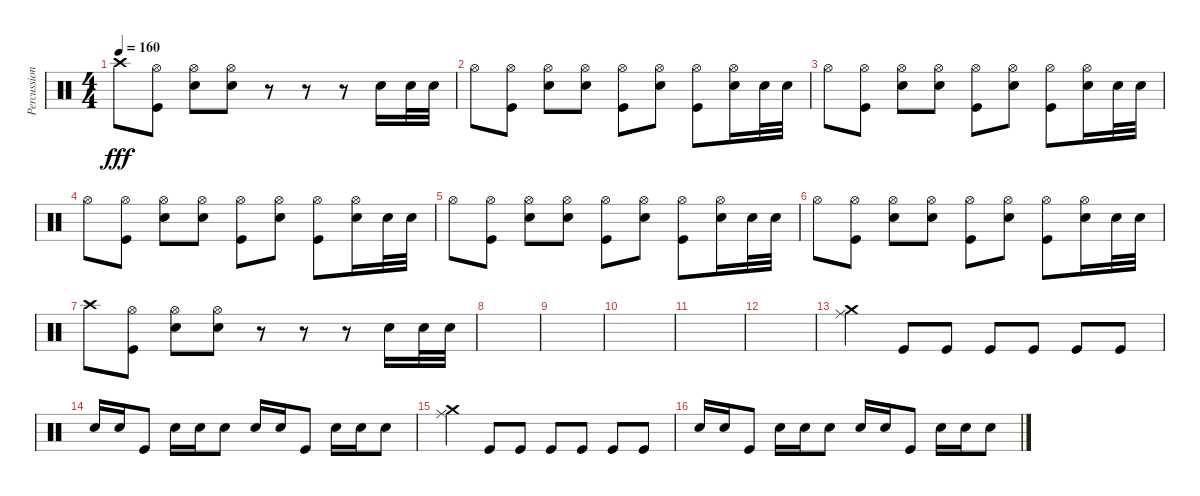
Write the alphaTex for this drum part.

\track ("Percussion" "Percussion") {instrument percussion}
\staff {score}
\articulation defaults
\ts (4 4)
\tempo 160
\clef neutral
\ks c "Crash high (hit)".8{dy fff}
("Kick (hit)" "Hi-Hat (open)").8 ("Snare (hit) 2" "Hi-Hat (open)").8 ("Snare (hit) 2" "Hi-Hat (open)").8 r.8 r.8 r.8 "Snare (hit) 2".16 "Snare (hit) 2".32 "Snare (hit) 2".32 |
"Hi-Hat (open)".8 ("Kick (hit)" "Hi-Hat (open)").8 ("Snare (hit) 2" "Hi-Hat (open)").8 ("Snare (hit) 2" "Hi-Hat (open)").8 ("Kick (hit)" "Hi-Hat (open)").8 ("Snare (hit) 2" "Hi-Hat (open)").8 ("Kick (hit)" "Hi-Hat (open)").8 ("Snare (hit) 2" "Hi-Hat (open)").16 "Snare (hit) 2".32 "Snare (hit) 2".32 |
"Hi-Hat (open)".8 ("Kick (hit)" "Hi-Hat (open)").8 ("Snare (hit) 2" "Hi-Hat (open)").8 ("Snare (hit) 2" "Hi-Hat (open)").8 ("Kick (hit)" "Hi-Hat (open)").8 ("Snare (hit) 2" "Hi-Hat (open)").8 ("Kick (hit)" "Hi-Hat (open)").8 ("Snare (hit) 2" "Hi-Hat (open)").16 "Snare (hit) 2".32 "Snare (hit) 2".32 |
"Hi-Hat (open)".8 ("Kick (hit)" "Hi-Hat (open)").8 ("Snare (hit) 2" "Hi-Hat (open)").8 ("Snare (hit) 2" "Hi-Hat (open)").8 ("Kick (hit)" "Hi-Hat (open)").8 ("Snare (hit) 2" "Hi-Hat (open)").8 ("Kick (hit)" "Hi-Hat (open)").8 ("Snare (hit) 2" "Hi-Hat (open)").16 "Snare (hit) 2".32 "Snare (hit) 2".32 |
"Hi-Hat (open)".8 ("Kick (hit)" "Hi-Hat (open)").8 ("Snare (hit) 2" "Hi-Hat (open)").8 ("Snare (hit) 2" "Hi-Hat (open)").8 ("Kick (hit)" "Hi-Hat (open)").8 ("Snare (hit) 2" "Hi-Hat (open)").8 ("Kick (hit)" "Hi-Hat (open)").8 ("Snare (hit) 2" "Hi-Hat (open)").16 "Snare (hit) 2".32 "Snare (hit) 2".32 |
"Hi-Hat (open)".8 ("Kick (hit)" "Hi-Hat (open)").8 ("Snare (hit) 2" "Hi-Hat (open)").8 ("Snare (hit) 2" "Hi-Hat (open)").8 ("Kick (hit)" "Hi-Hat (open)").8 ("Snare (hit) 2" "Hi-Hat (open)").8 ("Kick (hit)" "Hi-Hat (open)").8 ("Snare (hit) 2" "Hi-Hat (open)").16 "Snare (hit) 2".32 "Snare (hit) 2".32 |
"Crash high (hit)".8 ("Kick (hit)" "Hi-Hat (open)").8 ("Snare (hit) 2" "Hi-Hat (open)").8 ("Snare (hit) 2" "Hi-Hat (open)").8 r.8 r.8 r.8 "Snare (hit) 2".16 "Snare (hit) 2".32 "Snare (hit) 2".32 |
|
|
|
|
|
("Ride (middle)" "Crash medium (hit)").4 "Kick (hit)".8 "Kick (hit)".8 "Kick (hit)".8 "Kick (hit)".8 "Kick (hit)".8 "Kick (hit)".8 |
"Snare (hit) 2".16 "Snare (hit) 2".16 "Kick (hit)".8 "Snare (hit) 2".16 "Snare (hit) 2".16 "Snare (hit) 2".8 "Snare (hit) 2".16 "Snare (hit) 2".16 "Kick (hit)".8 "Snare (hit) 2".16 "Snare (hit) 2".16 "Snare (hit) 2".8 |
("Ride (middle)" "Crash medium (hit)").4 "Kick (hit)".8 "Kick (hit)".8 "Kick (hit)".8 "Kick (hit)".8 "Kick (hit)".8 "Kick (hit)".8 |
"Snare (hit) 2".16 "Snare (hit) 2".16 "Kick (hit)".8 "Snare (hit) 2".16 "Snare (hit) 2".16 "Snare (hit) 2".8 "Snare (hit) 2".16 "Snare (hit) 2".16 "Kick (hit)".8 "Snare (hit) 2".16 "Snare (hit) 2".16 "Snare (hit) 2".8
